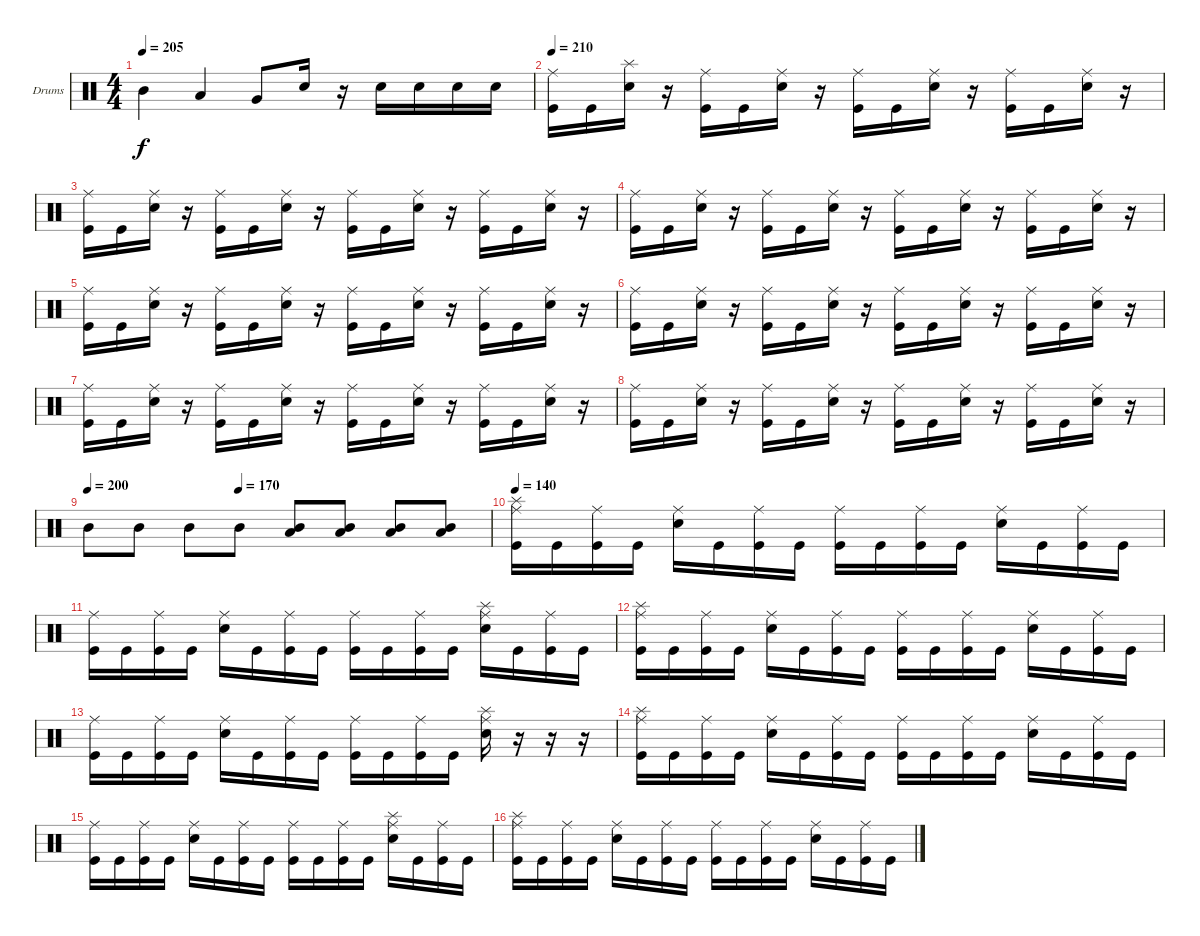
\bracketExtendMode groupsimilarinstruments
\firstSystemTrackNameOrientation horizontal
\otherSystemsTrackNameOrientation horizontal
\track ("Drumkit" "Drums") {instrument percussion}
\staff {score}
\articulation defaults
\ts (4 4)
\tempo 205
\clef neutral
\ks c "Mid Tom (hit)".4{dy f} "Low Tom (hit)".4 "Very Low Tom (hit)".8 "Snare (hit) 2".16
r.16 "Snare (hit) 2".16 "Snare (hit) 2".16 "Snare (hit) 2".16 "Snare (hit) 2".16 |
\tempo 210
("Ride (middle)" "Kick (hit)").16 "Kick (hit)".16 ("Splash (hit)" "Snare (hit) 2").16 r.16 ("Kick (hit)" "Ride (middle)").16 "Kick (hit)".16 ("Snare (hit) 2" "Ride (middle)").16 r.16 ("Kick (hit)" "Ride (middle)").16 "Kick (hit)".16 ("Snare (hit) 2" "Ride (middle)").16 r.16 ("Kick (hit)" "Ride (middle)").16 "Kick (hit)".16 ("Snare (hit) 2" "Ride (middle)").16 r.16 |
("Ride (middle)" "Kick (hit)").16 "Kick (hit)".16 ("Snare (hit) 2" "Ride (middle)").16 r.16 ("Kick (hit)" "Ride (middle)").16 "Kick (hit)".16 ("Snare (hit) 2" "Ride (middle)").16 r.16 ("Kick (hit)" "Ride (middle)").16 "Kick (hit)".16 ("Snare (hit) 2" "Ride (middle)").16 r.16 ("Kick (hit)" "Ride (middle)").16 "Kick (hit)".16 ("Snare (hit) 2" "Ride (middle)").16 r.16 |
("Ride (middle)" "Kick (hit)").16 "Kick (hit)".16 ("Snare (hit) 2" "Ride (middle)").16 r.16 ("Kick (hit)" "Ride (middle)").16 "Kick (hit)".16 ("Snare (hit) 2" "Ride (middle)").16 r.16 ("Kick (hit)" "Ride (middle)").16 "Kick (hit)".16 ("Snare (hit) 2" "Ride (middle)").16 r.16 ("Kick (hit)" "Ride (middle)").16 "Kick (hit)".16 ("Snare (hit) 2" "Ride (middle)").16 r.16 |
("Ride (middle)" "Kick (hit)").16 "Kick (hit)".16 ("Snare (hit) 2" "Ride (middle)").16 r.16 ("Kick (hit)" "Ride (middle)").16 "Kick (hit)".16 ("Snare (hit) 2" "Ride (middle)").16 r.16 ("Kick (hit)" "Ride (middle)").16 "Kick (hit)".16 ("Snare (hit) 2" "Ride (middle)").16 r.16 ("Kick (hit)" "Ride (middle)").16 "Kick (hit)".16 ("Snare (hit) 2" "Ride (middle)").16 r.16 |
("Ride (middle)" "Kick (hit)").16 "Kick (hit)".16 ("Snare (hit) 2" "Ride (middle)").16 r.16 ("Kick (hit)" "Ride (middle)").16 "Kick (hit)".16 ("Snare (hit) 2" "Ride (middle)").16 r.16 ("Kick (hit)" "Ride (middle)").16 "Kick (hit)".16 ("Snare (hit) 2" "Ride (middle)").16 r.16 ("Kick (hit)" "Ride (middle)").16 "Kick (hit)".16 ("Snare (hit) 2" "Ride (middle)").16 r.16 |
("Ride (middle)" "Kick (hit)").16 "Kick (hit)".16 ("Snare (hit) 2" "Ride (middle)").16 r.16 ("Kick (hit)" "Ride (middle)").16 "Kick (hit)".16 ("Snare (hit) 2" "Ride (middle)").16 r.16 ("Kick (hit)" "Ride (middle)").16 "Kick (hit)".16 ("Snare (hit) 2" "Ride (middle)").16 r.16 ("Kick (hit)" "Ride (middle)").16 "Kick (hit)".16 ("Snare (hit) 2" "Ride (middle)").16 r.16 |
("Ride (middle)" "Kick (hit)").16 "Kick (hit)".16 ("Snare (hit) 2" "Ride (middle)").16 r.16 ("Kick (hit)" "Ride (middle)").16 "Kick (hit)".16 ("Snare (hit) 2" "Ride (middle)").16 r.16 ("Kick (hit)" "Ride (middle)").16 "Kick (hit)".16 ("Snare (hit) 2" "Ride (middle)").16 r.16 ("Kick (hit)" "Ride (middle)").16 "Kick (hit)".16 ("Snare (hit) 2" "Ride (middle)").16 r.16 |
\tempo 200
\tempo (170 0.375)
"Mid Tom (hit)".8 "Mid Tom (hit)".8 "Mid Tom (hit)".8 "Mid Tom (hit)".8 ("Mid Tom (hit)" "Low Tom (hit)").8 ("Mid Tom (hit)" "Low Tom (hit)").8 ("Mid Tom (hit)" "Low Tom (hit)").8 ("Mid Tom (hit)" "Low Tom (hit)").8 |
\tempo 140
("Kick (hit)" "Ride (middle)" "Splash (hit)").16 "Kick (hit)".16 ("Kick (hit)" "Ride (middle)").16 "Kick (hit)".16 ("Snare (hit) 2" "Ride (middle)").16 "Kick (hit)".16 ("Kick (hit)" "Ride (middle)").16 "Kick (hit)".16 ("Kick (hit)" "Ride (middle)").16 "Kick (hit)".16 ("Kick (hit)" "Ride (middle)").16 "Kick (hit)".16 ("Snare (hit) 2" "Ride (middle)").16 "Kick (hit)".16 ("Kick (hit)" "Ride (middle)").16 "Kick (hit)".16 |
("Kick (hit)" "Ride (middle)").16 "Kick (hit)".16 ("Kick (hit)" "Ride (middle)").16 "Kick (hit)".16 ("Snare (hit) 2" "Ride (middle)").16 "Kick (hit)".16 ("Kick (hit)" "Ride (middle)").16 "Kick (hit)".16 ("Kick (hit)" "Ride (middle)").16 "Kick (hit)".16 ("Kick (hit)" "Ride (middle)").16 "Kick (hit)".16 ("Snare (hit) 2" "Ride (middle)" "Splash (hit)").16 "Kick (hit)".16 ("Kick (hit)" "Ride (middle)").16 "Kick (hit)".16 |
("Kick (hit)" "Ride (middle)" "Splash (hit)").16 "Kick (hit)".16 ("Kick (hit)" "Ride (middle)").16 "Kick (hit)".16 ("Snare (hit) 2" "Ride (middle)").16 "Kick (hit)".16 ("Kick (hit)" "Ride (middle)").16 "Kick (hit)".16 ("Kick (hit)" "Ride (middle)").16 "Kick (hit)".16 ("Kick (hit)" "Ride (middle)").16 "Kick (hit)".16 ("Snare (hit) 2" "Ride (middle)").16 "Kick (hit)".16 ("Kick (hit)" "Ride (middle)").16 "Kick (hit)".16 |
("Kick (hit)" "Ride (middle)").16 "Kick (hit)".16 ("Kick (hit)" "Ride (middle)").16 "Kick (hit)".16 ("Snare (hit) 2" "Ride (middle)").16 "Kick (hit)".16 ("Kick (hit)" "Ride (middle)").16 "Kick (hit)".16 ("Kick (hit)" "Ride (middle)").16 "Kick (hit)".16 ("Kick (hit)" "Ride (middle)").16 "Kick (hit)".16 ("Snare (hit) 2" "Ride (middle)" "Splash (hit)").16 r.16 r.16 r.16 |
("Kick (hit)" "Ride (middle)" "Splash (hit)").16 "Kick (hit)".16 ("Kick (hit)" "Ride (middle)").16 "Kick (hit)".16 ("Snare (hit) 2" "Ride (middle)").16 "Kick (hit)".16 ("Kick (hit)" "Ride (middle)").16 "Kick (hit)".16 ("Kick (hit)" "Ride (middle)").16 "Kick (hit)".16 ("Kick (hit)" "Ride (middle)").16 "Kick (hit)".16 ("Snare (hit) 2" "Ride (middle)").16 "Kick (hit)".16 ("Kick (hit)" "Ride (middle)").16 "Kick (hit)".16 |
("Kick (hit)" "Ride (middle)").16 "Kick (hit)".16 ("Kick (hit)" "Ride (middle)").16 "Kick (hit)".16 ("Snare (hit) 2" "Ride (middle)").16 "Kick (hit)".16 ("Kick (hit)" "Ride (middle)").16 "Kick (hit)".16 ("Kick (hit)" "Ride (middle)").16 "Kick (hit)".16 ("Kick (hit)" "Ride (middle)").16 "Kick (hit)".16 ("Snare (hit) 2" "Ride (middle)" "Splash (hit)").16 "Kick (hit)".16 ("Kick (hit)" "Ride (middle)").16 "Kick (hit)".16 |
("Kick (hit)" "Ride (middle)" "Splash (hit)").16 "Kick (hit)".16 ("Kick (hit)" "Ride (middle)").16 "Kick (hit)".16 ("Snare (hit) 2" "Ride (middle)").16 "Kick (hit)".16 ("Kick (hit)" "Ride (middle)").16 "Kick (hit)".16 ("Kick (hit)" "Ride (middle)").16 "Kick (hit)".16 ("Kick (hit)" "Ride (middle)").16 "Kick (hit)".16 ("Snare (hit) 2" "Ride (middle)").16 "Kick (hit)".16 ("Kick (hit)" "Ride (middle)").16 "Kick (hit)".16
